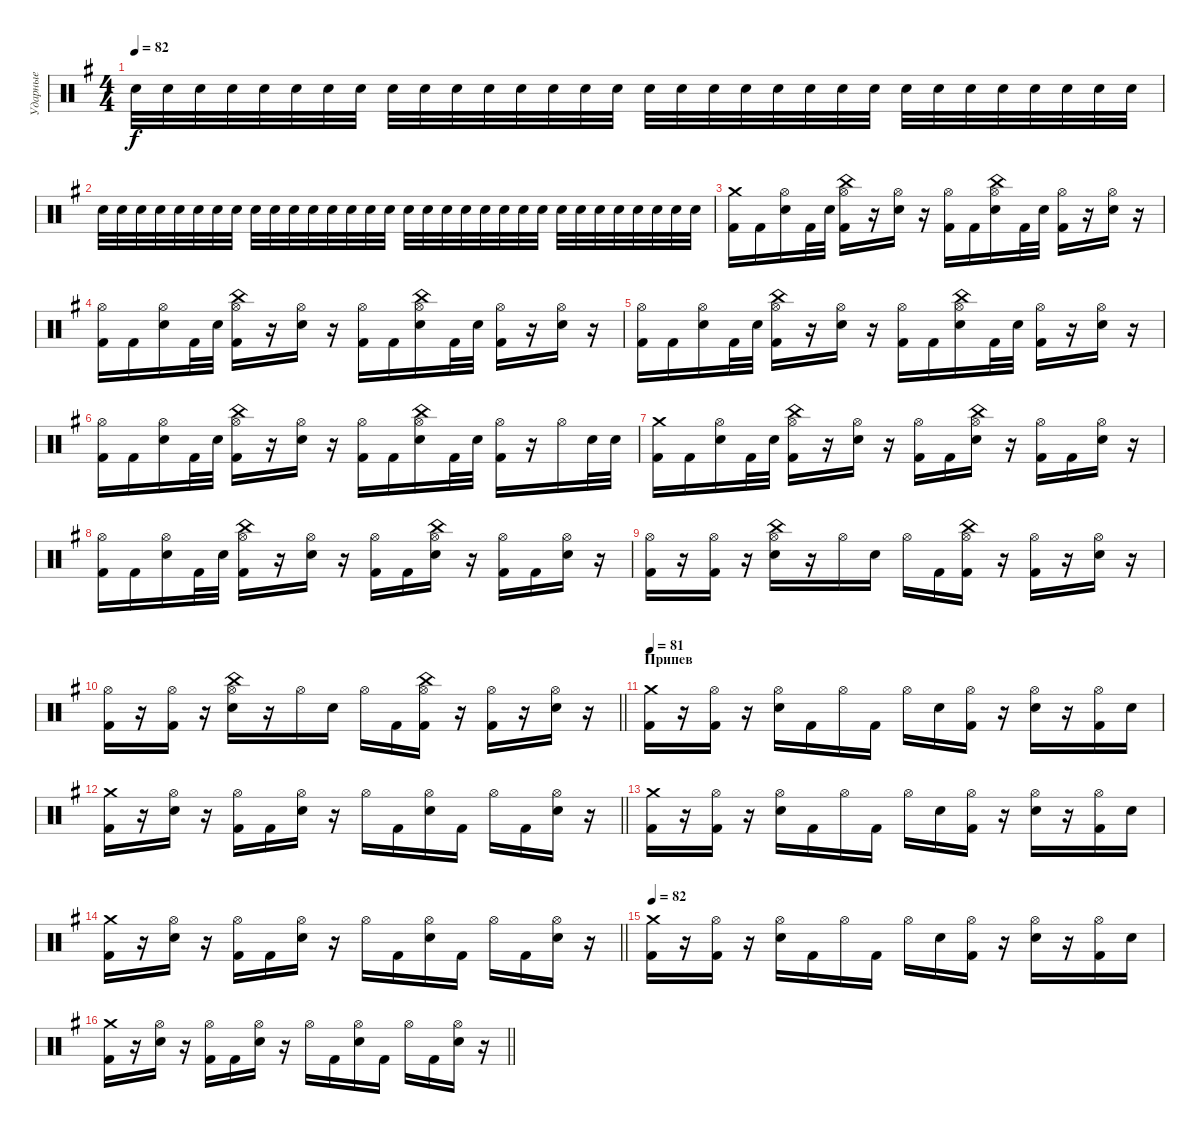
\track ("Ударные" "Ударные") {instrument percussion}
\staff {score}
\articulation defaults
\ts (4 4)
\tempo 82
\clef neutral
\ks eminor "Electric Snare (hit)".32{dy f} "Electric Snare (hit)".32 "Electric Snare (hit)".32 "Electric Snare (hit)".32 "Electric Snare (hit)".32 "Electric Snare (hit)".32 "Electric Snare (hit)".32 "Electric Snare (hit)".32 "Electric Snare (hit)".32 "Electric Snare (hit)".32 "Electric Snare (hit)".32 "Electric Snare (hit)".32 "Electric Snare (hit)".32 "Electric Snare (hit)".32 "Electric Snare (hit)".32 "Electric Snare (hit)".32 "Electric Snare (hit)".32 "Electric Snare (hit)".32 "Electric Snare (hit)".32 "Electric Snare (hit)".32 "Electric Snare (hit)".32 "Electric Snare (hit)".32 "Electric Snare (hit)".32 "Electric Snare (hit)".32 "Electric Snare (hit)".32 "Electric Snare (hit)".32 "Electric Snare (hit)".32 "Electric Snare (hit)".32 "Electric Snare (hit)".32 "Electric Snare (hit)".32 "Electric Snare (hit)".32 "Electric Snare (hit)".32
|
"Electric Snare (hit)".32{volume 13} "Electric Snare (hit)".32 "Electric Snare (hit)".32 "Electric Snare (hit)".32 "Electric Snare (hit)".32 "Electric Snare (hit)".32 "Electric Snare (hit)".32 "Electric Snare (hit)".32 "Electric Snare (hit)".32 "Electric Snare (hit)".32 "Electric Snare (hit)".32 "Electric Snare (hit)".32 "Electric Snare (hit)".32 "Electric Snare (hit)".32 "Electric Snare (hit)".32 "Electric Snare (hit)".32 "Electric Snare (hit)".32 "Electric Snare (hit)".32 "Electric Snare (hit)".32 "Electric Snare (hit)".32 "Electric Snare (hit)".32 "Electric Snare (hit)".32 "Electric Snare (hit)".32 "Electric Snare (hit)".32 "Electric Snare (hit)".32 "Electric Snare (hit)".32 "Electric Snare (hit)".32 "Electric Snare (hit)".32 "Electric Snare (hit)".32 "Electric Snare (hit)".32 "Electric Snare (hit)".32 "Electric Snare (hit)".32 |
("Crash medium (hit)" "Kick (hit) 2").16 "Kick (hit) 2".16 ("Hi-Hat (open)" "Electric Snare (hit)").16 "Kick (hit) 2".32 "Electric Snare (hit)".32 ("Hi-Hat (open)" "China (hit)" "Kick (hit) 2").16 r.16 ("Hi-Hat (open)" "Electric Snare (hit)").16 r.16 ("Hi-Hat (open)" "Kick (hit) 2").16 "Kick (hit) 2".16 ("Hi-Hat (open)" "China (hit)" "Electric Snare (hit)").16 "Kick (hit) 2".32 "Electric Snare (hit)".32 ("Hi-Hat (open)" "Kick (hit) 2").16 r.16 ("Hi-Hat (open)" "Electric Snare (hit)").16 r.16 |
("Hi-Hat (open)" "Kick (hit) 2").16 "Kick (hit) 2".16 ("Hi-Hat (open)" "Electric Snare (hit)").16 "Kick (hit) 2".32 "Electric Snare (hit)".32 ("Hi-Hat (open)" "China (hit)" "Kick (hit) 2").16 r.16 ("Hi-Hat (open)" "Electric Snare (hit)").16 r.16 ("Hi-Hat (open)" "Kick (hit) 2").16 "Kick (hit) 2".16 ("Hi-Hat (open)" "China (hit)" "Electric Snare (hit)").16 "Kick (hit) 2".32 "Electric Snare (hit)".32 ("Hi-Hat (open)" "Kick (hit) 2").16 r.16 ("Hi-Hat (open)" "Electric Snare (hit)").16 r.16 |
("Hi-Hat (open)" "Kick (hit) 2").16 "Kick (hit) 2".16 ("Hi-Hat (open)" "Electric Snare (hit)").16 "Kick (hit) 2".32 "Electric Snare (hit)".32 ("Hi-Hat (open)" "China (hit)" "Kick (hit) 2").16 r.16 ("Hi-Hat (open)" "Electric Snare (hit)").16 r.16 ("Hi-Hat (open)" "Kick (hit) 2").16 "Kick (hit) 2".16 ("Hi-Hat (open)" "China (hit)" "Electric Snare (hit)").16 "Kick (hit) 2".32 "Electric Snare (hit)".32 ("Hi-Hat (open)" "Kick (hit) 2").16 r.16 ("Hi-Hat (open)" "Electric Snare (hit)").16 r.16 |
("Hi-Hat (open)" "Kick (hit) 2").16 "Kick (hit) 2".16 ("Hi-Hat (open)" "Electric Snare (hit)").16 "Kick (hit) 2".32 "Electric Snare (hit)".32 ("Hi-Hat (open)" "China (hit)" "Kick (hit) 2").16 r.16 ("Hi-Hat (open)" "Electric Snare (hit)").16 r.16 ("Hi-Hat (open)" "Kick (hit) 2").16 "Kick (hit) 2".16 ("Hi-Hat (open)" "China (hit)" "Electric Snare (hit)").16 "Kick (hit) 2".32 "Electric Snare (hit)".32 ("Hi-Hat (open)" "Kick (hit) 2").16 r.16 "Hi-Hat (open)".16 "Electric Snare (hit)".32 "Electric Snare (hit)".32 |
("Crash medium (hit)" "Kick (hit) 2").16 "Kick (hit) 2".16 ("Hi-Hat (open)" "Electric Snare (hit)").16 "Kick (hit) 2".32 "Electric Snare (hit)".32 ("Hi-Hat (open)" "China (hit)" "Kick (hit) 2").16 r.16 ("Hi-Hat (open)" "Electric Snare (hit)").16 r.16 ("Hi-Hat (open)" "Kick (hit) 2").16 "Kick (hit) 2".16 ("Hi-Hat (open)" "China (hit)" "Electric Snare (hit)").16 r.16 ("Hi-Hat (open)" "Kick (hit) 2").16 "Kick (hit) 2".16 ("Hi-Hat (open)" "Electric Snare (hit)").16 r.16 |
("Hi-Hat (open)" "Kick (hit) 2").16 "Kick (hit) 2".16 ("Hi-Hat (open)" "Electric Snare (hit)").16 "Kick (hit) 2".32 "Electric Snare (hit)".32 ("Hi-Hat (open)" "China (hit)" "Kick (hit) 2").16 r.16 ("Hi-Hat (open)" "Electric Snare (hit)").16 r.16 ("Hi-Hat (open)" "Kick (hit) 2").16 "Kick (hit) 2".16 ("Hi-Hat (open)" "China (hit)" "Electric Snare (hit)").16 r.16 ("Hi-Hat (open)" "Kick (hit) 2").16 "Kick (hit) 2".16 ("Hi-Hat (open)" "Electric Snare (hit)").16 r.16 |
("Hi-Hat (open)" "Kick (hit) 2").16 r.16 ("Hi-Hat (open)" "Kick (hit) 2").16 r.16 ("Hi-Hat (open)" "China (hit)" "Electric Snare (hit)").16 r.16 "Hi-Hat (open)".16 "Electric Snare (hit)".16 "Hi-Hat (open)".16 "Kick (hit) 2".16 ("Hi-Hat (open)" "China (hit)" "Kick (hit) 2").16 r.16 ("Hi-Hat (open)" "Kick (hit) 2").16 r.16 ("Hi-Hat (open)" "Electric Snare (hit)").16 r.16 |
\barLineRight lightlight
("Hi-Hat (open)" "Kick (hit) 2").16 r.16 ("Hi-Hat (open)" "Kick (hit) 2").16 r.16 ("Hi-Hat (open)" "China (hit)" "Electric Snare (hit)").16 r.16 "Hi-Hat (open)".16 "Electric Snare (hit)".16 "Hi-Hat (open)".16 "Kick (hit) 2".16 ("Hi-Hat (open)" "China (hit)" "Kick (hit) 2").16 r.16 ("Hi-Hat (open)" "Kick (hit) 2").16 r.16 ("Hi-Hat (open)" "Electric Snare (hit)").16 r.16 |
\section ("" "Припев")
\tempo 81
("Crash medium (hit)" "Kick (hit) 2").16 r.16 ("Hi-Hat (open)" "Kick (hit) 2").16 r.16 ("Hi-Hat (open)" "Electric Snare (hit)").16 "Kick (hit) 2".16 "Hi-Hat (open)".16 "Kick (hit) 2".16 "Hi-Hat (open)".16 "Electric Snare (hit)".16 ("Hi-Hat (open)" "Kick (hit) 2").16 r.16 ("Hi-Hat (open)" "Electric Snare (hit)").16 r.16 ("Hi-Hat (open)" "Kick (hit) 2").16 "Electric Snare (hit)".16 |
\barLineRight lightlight
("Crash medium (hit)" "Kick (hit) 2").16 r.16 ("Hi-Hat (open)" "Electric Snare (hit)").16 r.16 ("Hi-Hat (open)" "Kick (hit) 2").16 "Kick (hit) 2".16 ("Hi-Hat (open)" "Electric Snare (hit)").16 r.16 "Hi-Hat (open)".16 "Kick (hit) 2".16 ("Hi-Hat (open)" "Electric Snare (hit)").16 "Kick (hit) 2".16 "Hi-Hat (open)".16 "Kick (hit) 2".16 ("Hi-Hat (open)" "Electric Snare (hit)").16 r.16 |
("Crash medium (hit)" "Kick (hit) 2").16 r.16 ("Hi-Hat (open)" "Kick (hit) 2").16 r.16 ("Hi-Hat (open)" "Electric Snare (hit)").16 "Kick (hit) 2".16 "Hi-Hat (open)".16 "Kick (hit) 2".16 "Hi-Hat (open)".16 "Electric Snare (hit)".16 ("Hi-Hat (open)" "Kick (hit) 2").16 r.16 ("Hi-Hat (open)" "Electric Snare (hit)").16 r.16 ("Hi-Hat (open)" "Kick (hit) 2").16 "Electric Snare (hit)".16 |
\barLineRight lightlight
("Crash medium (hit)" "Kick (hit) 2").16 r.16 ("Hi-Hat (open)" "Electric Snare (hit)").16 r.16 ("Hi-Hat (open)" "Kick (hit) 2").16 "Kick (hit) 2".16 ("Hi-Hat (open)" "Electric Snare (hit)").16 r.16 "Hi-Hat (open)".16 "Kick (hit) 2".16 ("Hi-Hat (open)" "Electric Snare (hit)").16 "Kick (hit) 2".16 "Hi-Hat (open)".16 "Kick (hit) 2".16 ("Hi-Hat (open)" "Electric Snare (hit)").16 r.16 |
\tempo 82
("Crash medium (hit)" "Kick (hit) 2").16 r.16 ("Hi-Hat (open)" "Kick (hit) 2").16 r.16 ("Hi-Hat (open)" "Electric Snare (hit)").16 "Kick (hit) 2".16 "Hi-Hat (open)".16 "Kick (hit) 2".16 "Hi-Hat (open)".16 "Electric Snare (hit)".16 ("Hi-Hat (open)" "Kick (hit) 2").16 r.16 ("Hi-Hat (open)" "Electric Snare (hit)").16 r.16 ("Hi-Hat (open)" "Kick (hit) 2").16 "Electric Snare (hit)".16 |
\barLineRight lightlight
("Crash medium (hit)" "Kick (hit) 2").16 r.16 ("Hi-Hat (open)" "Electric Snare (hit)").16 r.16 ("Hi-Hat (open)" "Kick (hit) 2").16 "Kick (hit) 2".16 ("Hi-Hat (open)" "Electric Snare (hit)").16 r.16 "Hi-Hat (open)".16 "Kick (hit) 2".16 ("Hi-Hat (open)" "Electric Snare (hit)").16 "Kick (hit) 2".16 "Hi-Hat (open)".16 "Kick (hit) 2".16 ("Hi-Hat (open)" "Electric Snare (hit)").16 r.16
